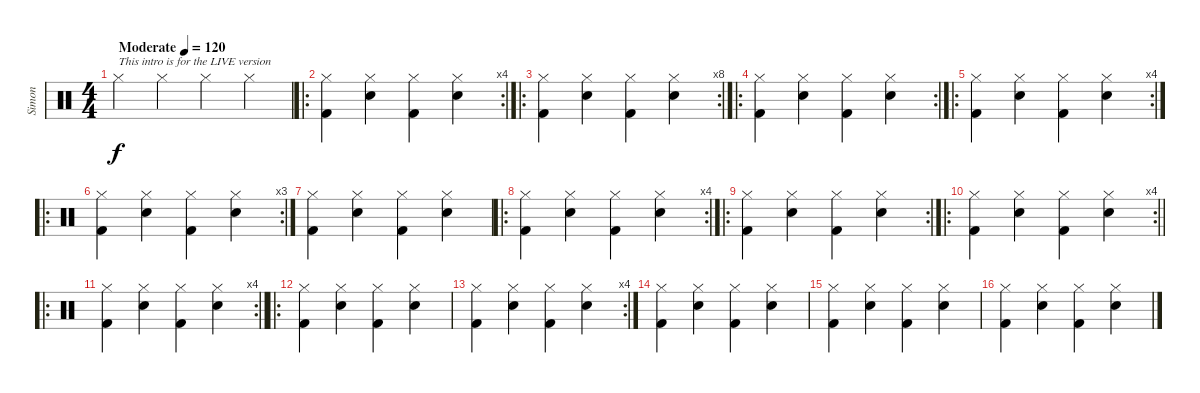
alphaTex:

\track ("Simon" "Simon") {instrument percussion}
\staff {score}
\articulation defaults
\ts (4 4)
\tempo (120 "Moderate")
\clef neutral
\ks c "Hi-Hat (closed)".4{txt "This intro is for the LIVE version" dy f} "Hi-Hat (closed)".4 "Hi-Hat (closed)".4 "Hi-Hat (closed)".4
|
\ro
\rc 4
("Hi-Hat (closed)" "Kick (hit) 2").4 ("Hi-Hat (closed)" "Electric Snare (hit)").4 ("Hi-Hat (closed)" "Kick (hit) 2").4 ("Hi-Hat (closed)" "Electric Snare (hit)").4 |
\ro
\rc 8
("Hi-Hat (closed)" "Kick (hit) 2").4 ("Hi-Hat (closed)" "Electric Snare (hit)").4 ("Hi-Hat (closed)" "Kick (hit) 2").4 ("Hi-Hat (closed)" "Electric Snare (hit)").4 |
\ro
\rc 2
("Hi-Hat (closed)" "Kick (hit) 2").4 ("Hi-Hat (closed)" "Electric Snare (hit)").4 ("Hi-Hat (closed)" "Kick (hit) 2").4 ("Hi-Hat (closed)" "Electric Snare (hit)").4 |
\ro
\rc 4
("Hi-Hat (closed)" "Kick (hit) 2").4 ("Hi-Hat (closed)" "Electric Snare (hit)").4 ("Hi-Hat (closed)" "Kick (hit) 2").4 ("Hi-Hat (closed)" "Electric Snare (hit)").4 |
\ro
\rc 3
("Hi-Hat (closed)" "Kick (hit) 2").4 ("Hi-Hat (closed)" "Electric Snare (hit)").4 ("Hi-Hat (closed)" "Kick (hit) 2").4 ("Hi-Hat (closed)" "Electric Snare (hit)").4 |
("Hi-Hat (closed)" "Kick (hit) 2").4 ("Hi-Hat (closed)" "Electric Snare (hit)").4 ("Hi-Hat (closed)" "Kick (hit) 2").4 ("Hi-Hat (closed)" "Electric Snare (hit)").4 |
\ro
\rc 4
("Hi-Hat (closed)" "Kick (hit) 2").4 ("Hi-Hat (closed)" "Electric Snare (hit)").4 ("Hi-Hat (closed)" "Kick (hit) 2").4 ("Hi-Hat (closed)" "Electric Snare (hit)").4 |
\ro
\rc 2
("Hi-Hat (closed)" "Kick (hit) 2").4 ("Hi-Hat (closed)" "Electric Snare (hit)").4 ("Hi-Hat (closed)" "Kick (hit) 2").4 ("Hi-Hat (closed)" "Electric Snare (hit)").4 |
\ro
\rc 4
\barLineRight lightlight
("Hi-Hat (closed)" "Kick (hit) 2").4 ("Hi-Hat (closed)" "Electric Snare (hit)").4 ("Hi-Hat (closed)" "Kick (hit) 2").4 ("Hi-Hat (closed)" "Electric Snare (hit)").4 |
\ro
\rc 4
\barLineRight lightlight
("Hi-Hat (closed)" "Kick (hit) 2").4 ("Hi-Hat (closed)" "Electric Snare (hit)").4 ("Hi-Hat (closed)" "Kick (hit) 2").4 ("Hi-Hat (closed)" "Electric Snare (hit)").4 |
\ro
("Hi-Hat (closed)" "Kick (hit) 2").4 ("Hi-Hat (closed)" "Electric Snare (hit)").4 ("Hi-Hat (closed)" "Kick (hit) 2").4 ("Hi-Hat (closed)" "Electric Snare (hit)").4 |
\rc 4
("Hi-Hat (closed)" "Kick (hit) 2").4 ("Hi-Hat (closed)" "Electric Snare (hit)").4 ("Hi-Hat (closed)" "Kick (hit) 2").4 ("Hi-Hat (closed)" "Electric Snare (hit)").4 |
("Hi-Hat (closed)" "Kick (hit) 2").4 ("Hi-Hat (closed)" "Electric Snare (hit)").4 ("Hi-Hat (closed)" "Kick (hit) 2").4 ("Hi-Hat (closed)" "Electric Snare (hit)").4 |
("Hi-Hat (closed)" "Kick (hit) 2").4 ("Hi-Hat (closed)" "Electric Snare (hit)").4 ("Hi-Hat (closed)" "Kick (hit) 2").4 ("Hi-Hat (closed)" "Electric Snare (hit)").4 |
("Hi-Hat (closed)" "Kick (hit) 2").4 ("Hi-Hat (closed)" "Electric Snare (hit)").4 ("Hi-Hat (closed)" "Kick (hit) 2").4 ("Hi-Hat (closed)" "Electric Snare (hit)").4
